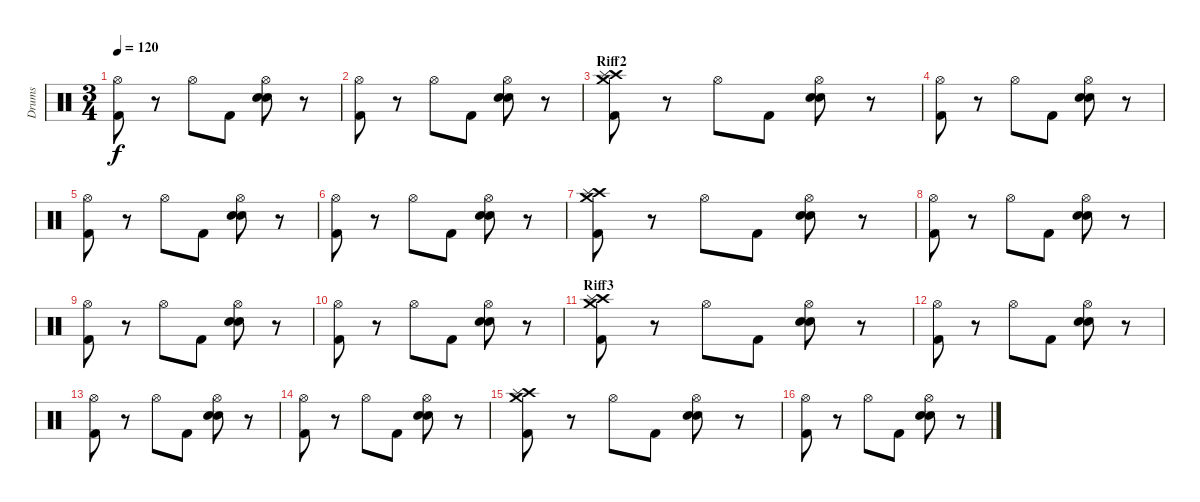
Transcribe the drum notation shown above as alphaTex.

\track ("Drums" "Drums") {instrument percussion}
\staff {score}
\articulation defaults
\ts (3 4)
\tempo 120
\clef neutral
\ks c
("Kick (hit) 2" "Hi-Hat (open)").8{dy f} r.8 "Hi-Hat (open)".8 "Kick (hit) 2".8 ("Electric Snare (hit)" "Electric Snare (hit)" "Hi-Hat (open)").8 r.8 |
("Kick (hit) 2" "Hi-Hat (open)").8 r.8 "Hi-Hat (open)".8 "Kick (hit) 2".8 ("Electric Snare (hit)" "Electric Snare (hit)" "Hi-Hat (open)").8 r.8 |
\section ("" "Riff2")
("Kick (hit) 2" "Crash medium (hit)" "Crash high (hit)" "Splash (hit)").8 r.8 "Hi-Hat (open)".8 "Kick (hit) 2".8 ("Electric Snare (hit)" "Electric Snare (hit)" "Hi-Hat (open)").8 r.8 |
("Kick (hit) 2" "Hi-Hat (open)").8 r.8 "Hi-Hat (open)".8 "Kick (hit) 2".8 ("Electric Snare (hit)" "Electric Snare (hit)" "Hi-Hat (open)").8 r.8 |
("Kick (hit) 2" "Hi-Hat (open)").8 r.8 "Hi-Hat (open)".8 "Kick (hit) 2".8 ("Electric Snare (hit)" "Electric Snare (hit)" "Hi-Hat (open)").8 r.8 |
("Kick (hit) 2" "Hi-Hat (open)").8 r.8 "Hi-Hat (open)".8 "Kick (hit) 2".8 ("Electric Snare (hit)" "Electric Snare (hit)" "Hi-Hat (open)").8 r.8 |
("Kick (hit) 2" "Crash medium (hit)" "Crash high (hit)" "Splash (hit)").8 r.8 "Hi-Hat (open)".8 "Kick (hit) 2".8 ("Electric Snare (hit)" "Electric Snare (hit)" "Hi-Hat (open)").8 r.8 |
("Kick (hit) 2" "Hi-Hat (open)").8 r.8 "Hi-Hat (open)".8 "Kick (hit) 2".8 ("Electric Snare (hit)" "Electric Snare (hit)" "Hi-Hat (open)").8 r.8 |
("Kick (hit) 2" "Hi-Hat (open)").8 r.8 "Hi-Hat (open)".8 "Kick (hit) 2".8 ("Electric Snare (hit)" "Electric Snare (hit)" "Hi-Hat (open)").8 r.8 |
("Kick (hit) 2" "Hi-Hat (open)").8 r.8 "Hi-Hat (open)".8 "Kick (hit) 2".8 ("Electric Snare (hit)" "Electric Snare (hit)" "Hi-Hat (open)").8 r.8 |
\section ("" "Riff3")
("Kick (hit) 2" "Crash medium (hit)" "Crash high (hit)" "Splash (hit)").8 r.8 "Hi-Hat (open)".8 "Kick (hit) 2".8 ("Electric Snare (hit)" "Electric Snare (hit)" "Hi-Hat (open)").8 r.8 |
("Kick (hit) 2" "Hi-Hat (open)").8 r.8 "Hi-Hat (open)".8 "Kick (hit) 2".8 ("Electric Snare (hit)" "Electric Snare (hit)" "Hi-Hat (open)").8 r.8 |
("Kick (hit) 2" "Hi-Hat (open)").8 r.8 "Hi-Hat (open)".8 "Kick (hit) 2".8 ("Electric Snare (hit)" "Electric Snare (hit)" "Hi-Hat (open)").8 r.8 |
("Kick (hit) 2" "Hi-Hat (open)").8 r.8 "Hi-Hat (open)".8 "Kick (hit) 2".8 ("Electric Snare (hit)" "Electric Snare (hit)" "Hi-Hat (open)").8 r.8 |
("Kick (hit) 2" "Crash medium (hit)" "Crash high (hit)" "Splash (hit)").8 r.8 "Hi-Hat (open)".8 "Kick (hit) 2".8 ("Electric Snare (hit)" "Electric Snare (hit)" "Hi-Hat (open)").8 r.8 |
("Kick (hit) 2" "Hi-Hat (open)").8 r.8 "Hi-Hat (open)".8 "Kick (hit) 2".8 ("Electric Snare (hit)" "Electric Snare (hit)" "Hi-Hat (open)").8 r.8
